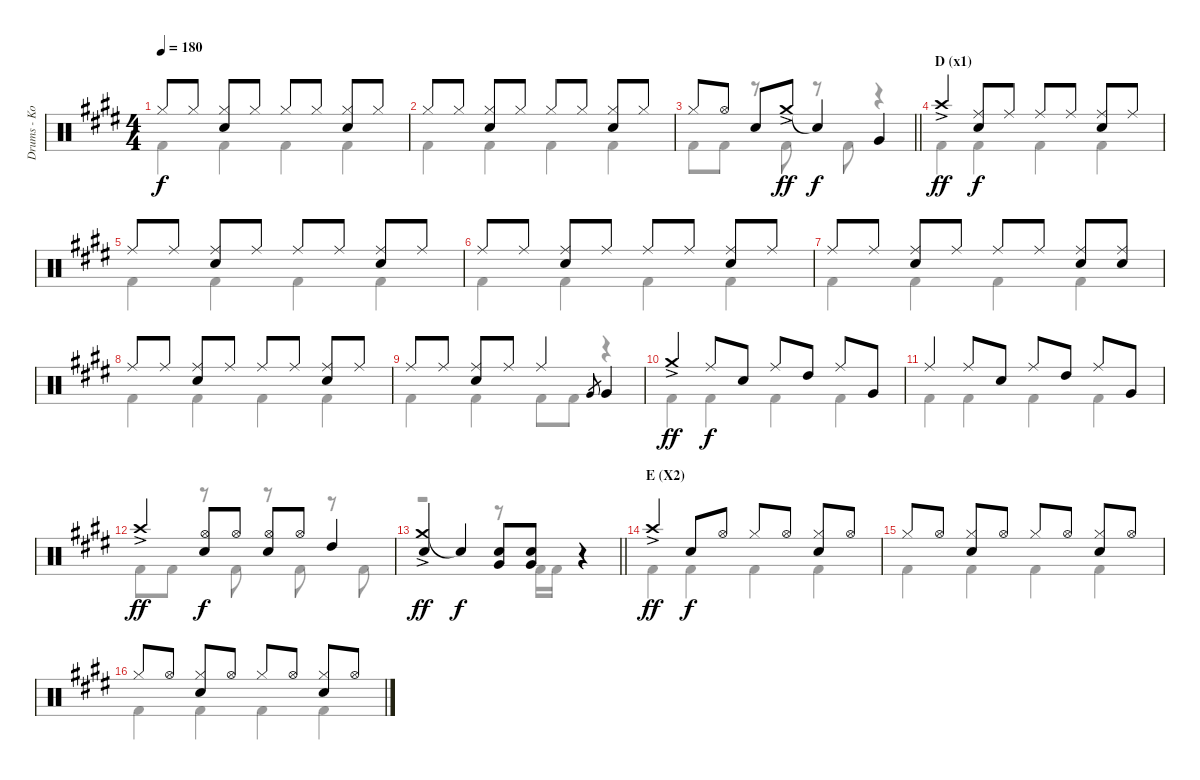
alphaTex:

\track ("Drums - Ko-Ki" "Drums - Ko") {instrument percussion}
\staff {score}
\articulation defaults
\voice
\ts (4 4)
\tempo 180
\clef neutral
\ks e "Hi-Hat (closed)".8{dy f} "Hi-Hat (closed)".8
("Hi-Hat (closed)" "Snare (hit) 2").8 "Hi-Hat (closed)".8 "Hi-Hat (closed)".8 "Hi-Hat (closed)".8 ("Hi-Hat (closed)" "Snare (hit) 2").8 "Hi-Hat (closed)".8 |
"Hi-Hat (closed)".8 "Hi-Hat (closed)".8 ("Hi-Hat (closed)" "Snare (hit) 2").8 "Hi-Hat (closed)".8 "Hi-Hat (closed)".8 "Hi-Hat (closed)".8 ("Hi-Hat (closed)" "Snare (hit) 2").8 "Hi-Hat (closed)".8 |
\barLineRight lightlight "Hi-Hat (closed)".8 "Hi-Hat (open)".8 "Snare (hit) 2".8 "Crash medium (hit)"{ac}.8{dy ff} "Snare (hit)"{t}.4{dy f} "Very Low Tom (hit)".4
|
\section ("" "D (x1)")
"Crash high (hit)"{ac}.4{dy ff} ("Ride (middle)" "Snare (hit) 2").8{dy f} "Ride (middle)".8 "Ride (middle)".8 "Ride (middle)".8 ("Ride (middle)" "Snare (hit) 2").8 "Ride (middle)".8 |
"Ride (middle)".8 "Ride (middle)".8 ("Ride (middle)" "Snare (hit) 2").8 "Ride (middle)".8 "Ride (middle)".8 "Ride (middle)".8 ("Ride (middle)" "Snare (hit) 2").8 "Ride (middle)".8 |
"Ride (middle)".8 "Ride (middle)".8 ("Ride (middle)" "Snare (hit) 2").8 "Ride (middle)".8 "Ride (middle)".8 "Ride (middle)".8 ("Ride (middle)" "Snare (hit) 2").8 "Ride (middle)".8 |
"Ride (middle)".8 "Ride (middle)".8 ("Ride (middle)" "Snare (hit) 2").8 "Ride (middle)".8 "Ride (middle)".8 "Ride (middle)".8 ("Ride (middle)" "Snare (hit) 2").8 ("Ride (middle)" "Snare (hit) 2").8 |
"Ride (middle)".8 "Ride (middle)".8 ("Ride (middle)" "Snare (hit) 2").8 "Ride (middle)".8 "Ride (middle)".8 "Ride (middle)".8 ("Ride (middle)" "Snare (hit) 2").8 "Ride (middle)".8 |
"Ride (middle)".8 "Ride (middle)".8 ("Ride (middle)" "Snare (hit) 2").8 "Ride (middle)".8 "Ride (middle)".4 "Very Low Tom (hit)".8{gr} "Very Low Tom (hit)".4 |
"Crash medium (hit)"{ac}.4{dy ff} "Ride (middle)".8{dy f} "Snare (hit) 2".8 "Ride (middle)".8 "High Tom (hit)".8 "Ride (middle)".8 "Very Low Tom (hit)".8 |
"Ride (middle)".4 "Ride (middle)".8 "Snare (hit) 2".8 "Ride (middle)".8 "High Tom (hit)".8 "Ride (middle)".8 "Very Low Tom (hit)".8 |
"Crash high (hit)"{ac}.4{dy ff} ("Hi-Hat (open)" "Snare (hit) 2").8{dy f} "Hi-Hat (open)".8 ("Hi-Hat (open)" "Snare (hit) 2").8 "Hi-Hat (open)".8 "High Tom (hit)".4 |
\barLineRight lightlight
("Crash medium (hit)"{ac} "Snare (hit) 2").4{dy ff} "Snare (hit)"{t}.4{dy f} ("Very Low Tom (hit)" "Snare (hit) 2").8 ("Very Low Tom (hit)" "Snare (hit) 2").8 r.4 |
\section ("" "E (X2)")
"Crash high (hit)"{ac}.4{dy ff} "Snare (hit) 2".8{dy f} "Hi-Hat (open)".8 "Hi-Hat (closed)".8 "Hi-Hat (open)".8 ("Hi-Hat (closed)" "Snare (hit) 2").8 "Hi-Hat (open)".8 |
"Hi-Hat (closed)".8 "Hi-Hat (open)".8 ("Hi-Hat (closed)" "Snare (hit) 2").8 "Hi-Hat (open)".8 "Hi-Hat (closed)".8 "Hi-Hat (open)".8 ("Hi-Hat (closed)" "Snare (hit) 2").8 "Hi-Hat (open)".8 |
"Hi-Hat (closed)".8 "Hi-Hat (open)".8 ("Hi-Hat (closed)" "Snare (hit) 2").8 "Hi-Hat (open)".8 "Hi-Hat (closed)".8 "Hi-Hat (open)".8 ("Hi-Hat (closed)" "Snare (hit) 2").8 "Hi-Hat (open)".8
\voice
\clef neutral
\ottava regular
\simile none
\ks e "Kick (hit) 2".4{dy f} "Kick (hit) 2".4 "Kick (hit) 2".4 "Kick (hit) 2".4
|
"Kick (hit) 2".4 "Kick (hit) 2".4 "Kick (hit) 2".4 "Kick (hit) 2".4 |
\barLineRight lightlight "Kick (hit) 2".8 "Kick (hit) 2".8
r.8 "Kick (hit) 2".8 r.8 "Kick (hit) 2".8 r.4 |
"Kick (hit) 2".4 "Kick (hit) 2".4 "Kick (hit) 2".4 "Kick (hit) 2".4 |
"Kick (hit) 2".4 "Kick (hit) 2".4 "Kick (hit) 2".4 "Kick (hit) 2".4 |
"Kick (hit) 2".4 "Kick (hit) 2".4 "Kick (hit) 2".4 "Kick (hit) 2".4 |
"Kick (hit) 2".4 "Kick (hit) 2".4 "Kick (hit) 2".4 "Kick (hit) 2".4 |
"Kick (hit) 2".4 "Kick (hit) 2".4 "Kick (hit) 2".4 "Kick (hit) 2".4 |
"Kick (hit) 2".4 "Kick (hit) 2".4 "Kick (hit) 2".8 "Kick (hit) 2".8 r.4 |
"Kick (hit) 2".4 "Kick (hit) 2".4 "Kick (hit) 2".4 "Kick (hit) 2".4 |
"Kick (hit) 2".4 "Kick (hit) 2".4 "Kick (hit) 2".4 "Kick (hit) 2".4 |
"Kick (hit) 2".8 "Kick (hit) 2".8 r.8 "Kick (hit) 2".8 r.8 "Kick (hit) 2".8 r.8 "Kick (hit) 2".8 |
\barLineRight lightlight
r.2 r.8 "Kick (hit) 2".16 "Kick (hit) 2".16 r.4 |
"Kick (hit) 2".4 "Kick (hit) 2".4 "Kick (hit) 2".4 "Kick (hit) 2".4 |
"Kick (hit) 2".4 "Kick (hit) 2".4 "Kick (hit) 2".4 "Kick (hit) 2".4 |
"Kick (hit) 2".4 "Kick (hit) 2".4 "Kick (hit) 2".4 "Kick (hit) 2".4
